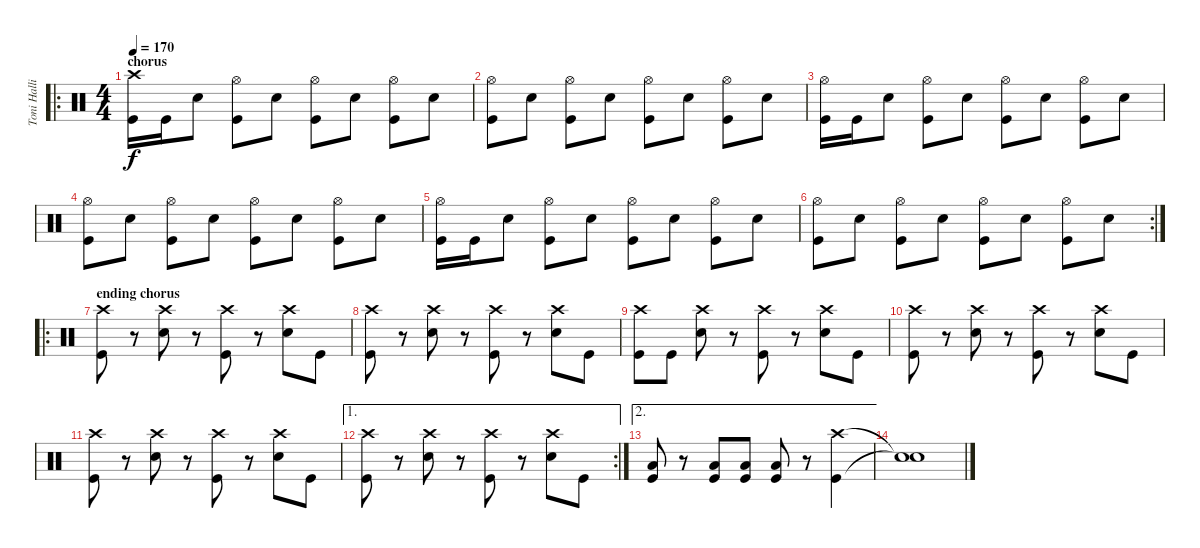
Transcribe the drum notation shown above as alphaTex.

\track ("Toni Hallio" "Toni Halli") {instrument percussion}
\staff {score}
\articulation defaults
\ro
\ts (4 4)
\section ("" "chorus")
\tempo 170
\clef neutral
\ks c
("Crash high (hit)" "Kick (hit)").16{dy f} "Kick (hit)".16 "Snare (hit) 2".8 ("Hi-Hat (open)" "Kick (hit)").8 "Snare (hit) 2".8 ("Hi-Hat (open)" "Kick (hit)").8 "Snare (hit) 2".8 ("Hi-Hat (open)" "Kick (hit)").8 "Snare (hit) 2".8 |
("Hi-Hat (open)" "Kick (hit)").8 "Snare (hit) 2".8 ("Hi-Hat (open)" "Kick (hit)").8 "Snare (hit) 2".8 ("Hi-Hat (open)" "Kick (hit)").8 "Snare (hit) 2".8 ("Hi-Hat (open)" "Kick (hit)").8 "Snare (hit) 2".8 |
("Hi-Hat (open)" "Kick (hit)").16 "Kick (hit)".16 "Snare (hit) 2".8 ("Hi-Hat (open)" "Kick (hit)").8 "Snare (hit) 2".8 ("Hi-Hat (open)" "Kick (hit)").8 "Snare (hit) 2".8 ("Hi-Hat (open)" "Kick (hit)").8 "Snare (hit) 2".8 |
("Hi-Hat (open)" "Kick (hit)").8 "Snare (hit) 2".8 ("Hi-Hat (open)" "Kick (hit)").8 "Snare (hit) 2".8 ("Hi-Hat (open)" "Kick (hit)").8 "Snare (hit) 2".8 ("Hi-Hat (open)" "Kick (hit)").8 "Snare (hit) 2".8 |
("Hi-Hat (open)" "Kick (hit)").16 "Kick (hit)".16 "Snare (hit) 2".8 ("Hi-Hat (open)" "Kick (hit)").8 "Snare (hit) 2".8 ("Hi-Hat (open)" "Kick (hit)").8 "Snare (hit) 2".8 ("Hi-Hat (open)" "Kick (hit)").8 "Snare (hit) 2".8 |
\rc 2
("Hi-Hat (open)" "Kick (hit)").8 "Snare (hit) 2".8 ("Hi-Hat (open)" "Kick (hit)").8 "Snare (hit) 2".8 ("Hi-Hat (open)" "Kick (hit)").8 "Snare (hit) 2".8 ("Hi-Hat (open)" "Kick (hit)").8 "Snare (hit) 2".8 |
\ro
\section ("" "ending chorus")
("Crash high (hit)" "Kick (hit)").8 r.8 ("Crash high (hit)" "Snare (hit) 2").8 r.8 ("Crash high (hit)" "Kick (hit)").8 r.8 ("Crash high (hit)" "Snare (hit) 2").8 "Kick (hit)".8 |
("Crash high (hit)" "Kick (hit)").8 r.8 ("Crash high (hit)" "Snare (hit) 2").8 r.8 ("Crash high (hit)" "Kick (hit)").8 r.8 ("Crash high (hit)" "Snare (hit) 2").8 "Kick (hit)".8 |
("Crash high (hit)" "Kick (hit)").8 "Kick (hit)".8 ("Crash high (hit)" "Snare (hit) 2").8 r.8 ("Crash high (hit)" "Kick (hit)").8 r.8 ("Crash high (hit)" "Snare (hit) 2").8 "Kick (hit)".8 |
("Crash high (hit)" "Kick (hit)").8 r.8 ("Crash high (hit)" "Snare (hit) 2").8 r.8 ("Crash high (hit)" "Kick (hit)").8 r.8 ("Crash high (hit)" "Snare (hit) 2").8 "Kick (hit)".8 |
("Crash high (hit)" "Kick (hit)").8 r.8 ("Crash high (hit)" "Snare (hit) 2").8 r.8 ("Crash high (hit)" "Kick (hit)").8 r.8 ("Crash high (hit)" "Snare (hit) 2").8 "Kick (hit)".8 |
\ae 1
\rc 2
("Crash high (hit)" "Kick (hit)").8 r.8 ("Crash high (hit)" "Snare (hit) 2").8 r.8 ("Crash high (hit)" "Kick (hit)").8 r.8 ("Crash high (hit)" "Snare (hit) 2").8 "Kick (hit)".8 |
\ae 2
("Low Tom (hit)" "Kick (hit)").8 r.8 ("Low Tom (hit)" "Kick (hit)").8 ("Low Tom (hit)" "Kick (hit)").8 ("Low Tom (hit)" "Kick (hit)").8 r.8 ("Crash high (hit)" "Kick (hit)").4 |
("Snare (hit)"{t} "Snare (hit)"{t}).1
